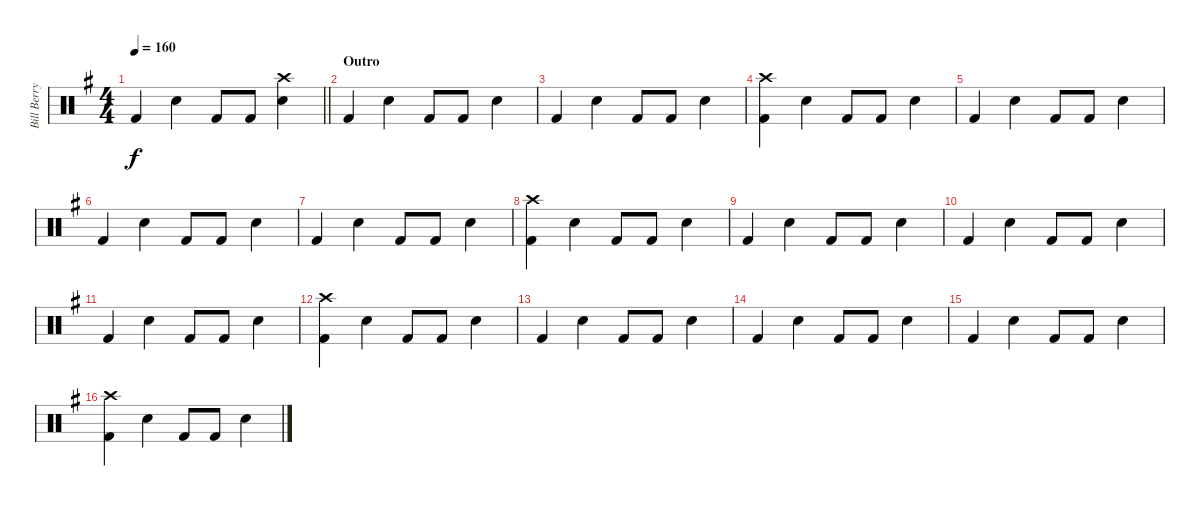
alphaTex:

\track ("Bill Berry" "Bill Berry") {instrument percussion}
\staff {score}
\articulation defaults
\ts (4 4)
\tempo 160
\clef neutral
\barLineRight lightlight
\ks g "Kick (hit) 2".4{dy f} "Snare (hit) 2".4 "Kick (hit) 2".8 "Kick (hit) 2".8
("Snare (hit) 2" "Crash high (hit)").4 |
\section ("" "Outro")
"Kick (hit) 2".4 "Snare (hit) 2".4 "Kick (hit) 2".8 "Kick (hit) 2".8 "Snare (hit) 2".4 |
"Kick (hit) 2".4 "Snare (hit) 2".4 "Kick (hit) 2".8 "Kick (hit) 2".8 "Snare (hit) 2".4 |
("Kick (hit) 2" "Crash high (hit)").4 "Snare (hit) 2".4 "Kick (hit) 2".8 "Kick (hit) 2".8 "Snare (hit) 2".4 |
"Kick (hit) 2".4 "Snare (hit) 2".4 "Kick (hit) 2".8 "Kick (hit) 2".8 "Snare (hit) 2".4 |
"Kick (hit) 2".4 "Snare (hit) 2".4 "Kick (hit) 2".8 "Kick (hit) 2".8 "Snare (hit) 2".4 |
"Kick (hit) 2".4 "Snare (hit) 2".4 "Kick (hit) 2".8 "Kick (hit) 2".8 "Snare (hit) 2".4 |
("Kick (hit) 2" "Crash high (hit)").4 "Snare (hit) 2".4 "Kick (hit) 2".8 "Kick (hit) 2".8 "Snare (hit) 2".4 |
"Kick (hit) 2".4 "Snare (hit) 2".4 "Kick (hit) 2".8 "Kick (hit) 2".8 "Snare (hit) 2".4 |
"Kick (hit) 2".4 "Snare (hit) 2".4 "Kick (hit) 2".8 "Kick (hit) 2".8 "Snare (hit) 2".4 |
"Kick (hit) 2".4 "Snare (hit) 2".4 "Kick (hit) 2".8 "Kick (hit) 2".8 "Snare (hit) 2".4 |
("Kick (hit) 2" "Crash high (hit)").4 "Snare (hit) 2".4 "Kick (hit) 2".8 "Kick (hit) 2".8 "Snare (hit) 2".4 |
"Kick (hit) 2".4 "Snare (hit) 2".4 "Kick (hit) 2".8 "Kick (hit) 2".8 "Snare (hit) 2".4 |
"Kick (hit) 2".4 "Snare (hit) 2".4 "Kick (hit) 2".8 "Kick (hit) 2".8 "Snare (hit) 2".4 |
"Kick (hit) 2".4 "Snare (hit) 2".4 "Kick (hit) 2".8 "Kick (hit) 2".8 "Snare (hit) 2".4 |
("Kick (hit) 2" "Crash high (hit)").4 "Snare (hit) 2".4 "Kick (hit) 2".8 "Kick (hit) 2".8 "Snare (hit) 2".4
